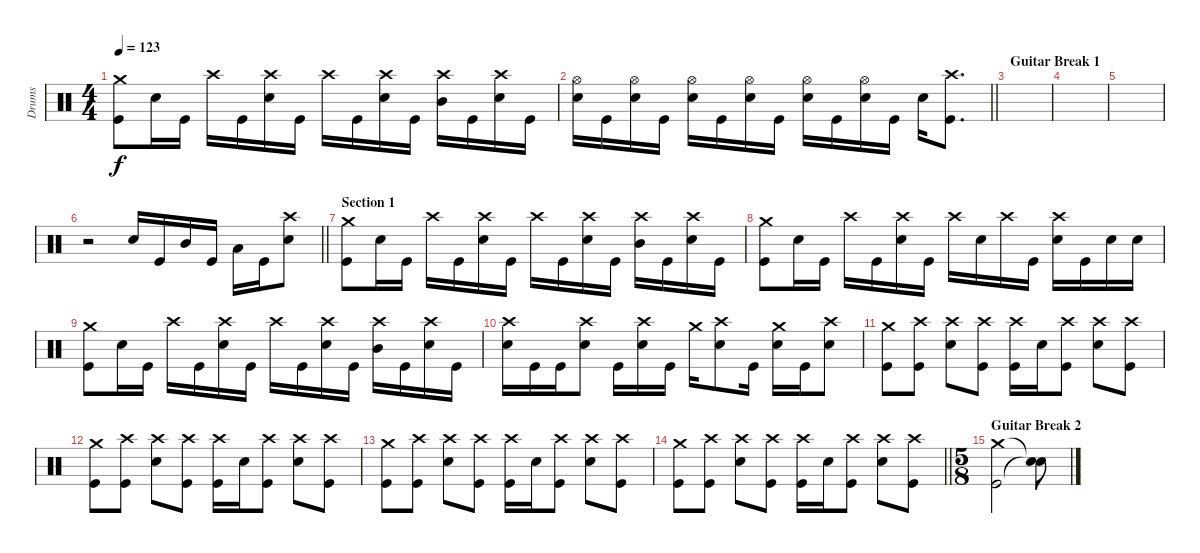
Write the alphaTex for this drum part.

\track ("Drums" "Drums") {instrument percussion}
\staff {score}
\articulation defaults
\ts (4 4)
\tempo 123
\clef neutral
\ks c
("Crash medium (hit)" "Kick (hit)").8{dy f} "Snare (hit) 2".16 "Kick (hit)".16 "Crash high (hit)".16 "Kick (hit)".16 ("Crash high (hit)" "Snare (hit) 2").16 "Kick (hit)".16 "Crash high (hit)".16 "Kick (hit)".16 ("Crash high (hit)" "Snare (hit) 2").16 "Kick (hit)".16 ("Crash high (hit)" "Mid Tom (hit)").16 "Kick (hit)".16 ("Crash high (hit)" "Snare (hit) 2").16 "Kick (hit)".16 |
\barLineRight lightlight
("Hi-Hat (open)" "Snare (hit) 2").16 "Kick (hit)".16 ("Hi-Hat (open)" "Snare (hit) 2").16 "Kick (hit)".16 ("Hi-Hat (open)" "Snare (hit) 2").16 "Kick (hit)".16 ("Hi-Hat (open)" "Snare (hit) 2").16 "Kick (hit)".16 ("Hi-Hat (open)" "Snare (hit) 2").16 "Kick (hit)".16 ("Hi-Hat (open)" "Snare (hit) 2").16 "Kick (hit)".16 "Snare (hit) 2".16 ("Crash high (hit)" "Kick (hit)").8{d} |
\section ("" "Guitar Break 1")
|
|
|
\barLineRight lightlight
r.2 "Snare (hit) 2".16 "Kick (hit)".16 "Mid Tom (hit)".16 "Kick (hit)".16 "Low Tom (hit)".16 "Kick (hit)".16 ("Crash high (hit)" "Snare (hit) 2").8 |
\section ("" "Section 1")
("Crash medium (hit)" "Kick (hit)").8 "Snare (hit) 2".16 "Kick (hit)".16 "Crash high (hit)".16 "Kick (hit)".16 ("Crash high (hit)" "Snare (hit) 2").16 "Kick (hit)".16 "Crash high (hit)".16 "Kick (hit)".16 ("Crash high (hit)" "Snare (hit) 2").16 "Kick (hit)".16 ("Crash high (hit)" "Mid Tom (hit)").16 "Kick (hit)".16 ("Crash high (hit)" "Snare (hit) 2").16 "Kick (hit)".16 |
("Crash medium (hit)" "Kick (hit)").8 "Snare (hit) 2".16 "Kick (hit)".16 "Crash high (hit)".16 "Kick (hit)".16 ("Crash high (hit)" "Snare (hit) 2").16 "Kick (hit)".16 "Crash high (hit)".16 "Snare (hit) 2".16 "Crash high (hit)".16 "Kick (hit)".16 ("Crash high (hit)" "Snare (hit) 2").16 "Kick (hit)".16 "Snare (hit) 2".16 "Snare (hit) 2".16 |
("Crash medium (hit)" "Kick (hit)").8 "Snare (hit) 2".16 "Kick (hit)".16 "Crash high (hit)".16 "Kick (hit)".16 ("Crash high (hit)" "Snare (hit) 2").16 "Kick (hit)".16 "Crash high (hit)".16 "Kick (hit)".16 ("Crash high (hit)" "Snare (hit) 2").16 "Kick (hit)".16 ("Crash high (hit)" "Mid Tom (hit)").16 "Kick (hit)".16 ("Crash high (hit)" "Snare (hit) 2").16 "Kick (hit)".16 |
("Crash high (hit)" "Snare (hit) 2").16 "Kick (hit)".16 "Kick (hit)".16 ("Crash high (hit)" "Snare (hit) 2").8 "Kick (hit)".16 ("Crash high (hit)" "Snare (hit) 2").16 "Kick (hit)".16 "Crash medium (hit)".16 ("Crash high (hit)" "Snare (hit) 2").8 "Kick (hit)".16 ("Crash medium (hit)" "Snare (hit) 2").16 "Kick (hit)".16 ("Crash high (hit)" "Snare (hit) 2").8 |
("Crash medium (hit)" "Kick (hit)").8 ("Crash high (hit)" "Kick (hit)").8 ("Crash high (hit)" "Snare (hit) 2").8 ("Crash high (hit)" "Kick (hit)").8 ("Crash high (hit)" "Kick (hit)").16 "Snare (hit) 2".16 ("Crash high (hit)" "Kick (hit)").8 ("Crash high (hit)" "Snare (hit) 2").8 ("Crash high (hit)" "Kick (hit)").8 |
("Crash medium (hit)" "Kick (hit)").8 ("Crash high (hit)" "Kick (hit)").8 ("Crash high (hit)" "Snare (hit) 2").8 ("Crash high (hit)" "Kick (hit)").8 ("Crash high (hit)" "Kick (hit)").16 "Snare (hit) 2".16 ("Crash high (hit)" "Kick (hit)").8 ("Crash high (hit)" "Snare (hit) 2").8 ("Crash high (hit)" "Kick (hit)").8 |
("Crash medium (hit)" "Kick (hit)").8 ("Crash high (hit)" "Kick (hit)").8 ("Crash high (hit)" "Snare (hit) 2").8 ("Crash high (hit)" "Kick (hit)").8 ("Crash high (hit)" "Kick (hit)").16 "Snare (hit) 2".16 ("Crash high (hit)" "Kick (hit)").8 ("Crash high (hit)" "Snare (hit) 2").8 ("Crash high (hit)" "Kick (hit)").8 |
\barLineRight lightlight
("Crash medium (hit)" "Kick (hit)").8 ("Crash high (hit)" "Kick (hit)").8 ("Crash high (hit)" "Snare (hit) 2").8 ("Crash high (hit)" "Kick (hit)").8 ("Crash high (hit)" "Kick (hit)").16 "Snare (hit) 2".16 ("Crash high (hit)" "Kick (hit)").8 ("Crash high (hit)" "Snare (hit) 2").8 ("Crash high (hit)" "Kick (hit)").8 |
\ts (5 8)
\section ("" "Guitar Break 2")
("Crash medium (hit)" "Kick (hit)").2 ("Snare (hit)"{t} "Snare (hit)"{t}).8
